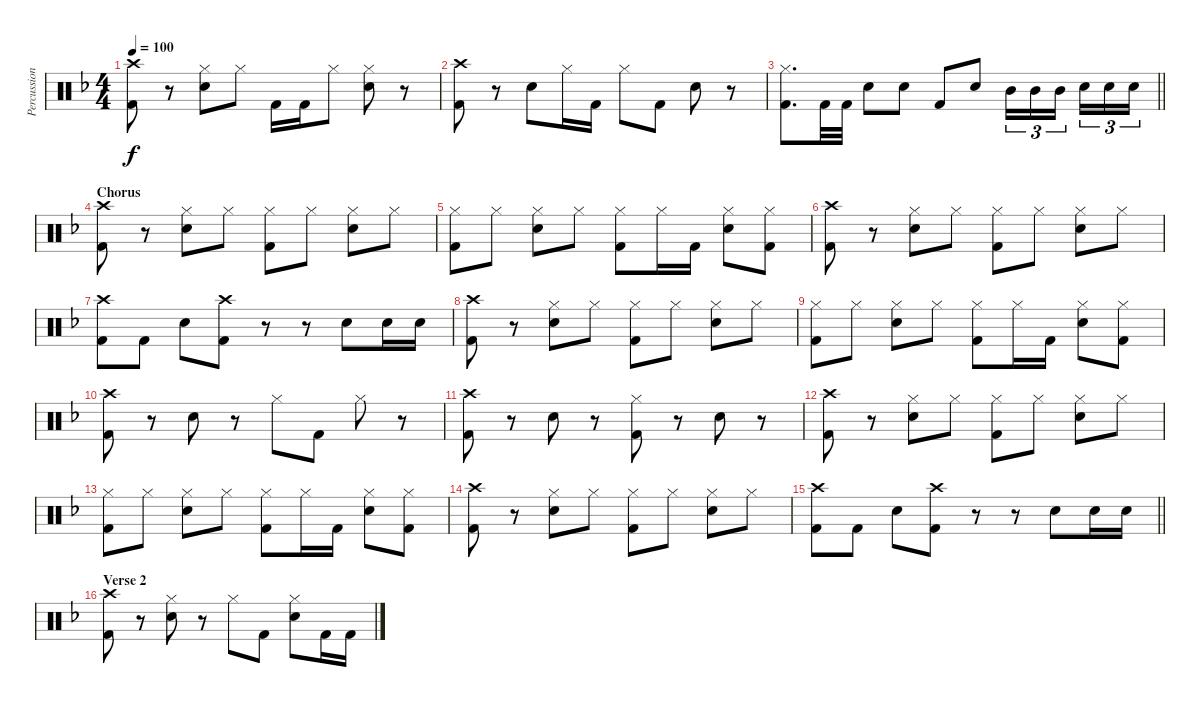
\track ("Percussion" "Percussion") {instrument percussion}
\staff {score}
\articulation defaults
\ts (4 4)
\tempo 100
\clef neutral
\ks dminor
("Crash high (hit)" "Kick (hit) 2").8{dy f} r.8 ("Hi-Hat (closed)" "Snare (hit) 2").8 "Hi-Hat (closed)".8 "Kick (hit) 2".16 "Kick (hit) 2".16 "Hi-Hat (closed)".8 ("Hi-Hat (closed)" "Snare (hit) 2").8 r.8 |
("Crash high (hit)" "Kick (hit) 2").8 r.8 "Snare (hit) 2".8 "Hi-Hat (closed)".16 "Kick (hit) 2".16 "Hi-Hat (closed)".8 "Kick (hit) 2".8 "Snare (hit) 2".8 r.8 |
\barLineRight lightlight
("Hi-Hat (closed)" "Kick (hit) 2").8{d} "Kick (hit) 2".32 "Kick (hit) 2".32 "Snare (hit) 2".8 "Snare (hit) 2".8 "Kick (hit) 2".8 "Snare (hit) 2".8 "Mid Tom (hit)".16{tu (3 2)} "Mid Tom (hit)".16{tu (3 2)} "Mid Tom (hit)".16{tu (3 2) beam splitsecondary} "Snare (hit) 2".16{tu (3 2)} "Snare (hit) 2".16{tu (3 2)} "Snare (hit) 2".16{tu (3 2)} |
\section ("" "Chorus")
("Crash high (hit)" "Kick (hit) 2").8 r.8 ("Hi-Hat (closed)" "Snare (hit) 2").8 "Hi-Hat (closed)".8 ("Hi-Hat (closed)" "Kick (hit) 2").8 "Hi-Hat (closed)".8 ("Hi-Hat (closed)" "Snare (hit) 2").8 "Hi-Hat (closed)".8 |
("Hi-Hat (closed)" "Kick (hit) 2").8 "Hi-Hat (closed)".8 ("Hi-Hat (closed)" "Snare (hit) 2").8 "Hi-Hat (closed)".8 ("Hi-Hat (closed)" "Kick (hit) 2").8 "Hi-Hat (closed)".16 "Kick (hit) 2".16 ("Hi-Hat (closed)" "Snare (hit) 2").8 ("Hi-Hat (closed)" "Kick (hit) 2").8 |
("Crash high (hit)" "Kick (hit) 2").8 r.8 ("Hi-Hat (closed)" "Snare (hit) 2").8 "Hi-Hat (closed)".8 ("Hi-Hat (closed)" "Kick (hit) 2").8 "Hi-Hat (closed)".8 ("Hi-Hat (closed)" "Snare (hit) 2").8 "Hi-Hat (closed)".8 |
("Crash high (hit)" "Kick (hit) 2").8 "Kick (hit) 2".8 "Snare (hit) 2".8 ("Crash high (hit)" "Kick (hit) 2").8 r.8 r.8 "Snare (hit) 2".8 "Snare (hit) 2".16 "Snare (hit) 2".16 |
("Crash high (hit)" "Kick (hit) 2").8 r.8 ("Hi-Hat (closed)" "Snare (hit) 2").8 "Hi-Hat (closed)".8 ("Hi-Hat (closed)" "Kick (hit) 2").8 "Hi-Hat (closed)".8 ("Hi-Hat (closed)" "Snare (hit) 2").8 "Hi-Hat (closed)".8 |
("Hi-Hat (closed)" "Kick (hit) 2").8 "Hi-Hat (closed)".8 ("Hi-Hat (closed)" "Snare (hit) 2").8 "Hi-Hat (closed)".8 ("Hi-Hat (closed)" "Kick (hit) 2").8 "Hi-Hat (closed)".16 "Kick (hit) 2".16 ("Hi-Hat (closed)" "Snare (hit) 2").8 ("Hi-Hat (closed)" "Kick (hit) 2").8 |
("Crash high (hit)" "Kick (hit) 2").8 r.8 "Snare (hit) 2".8 r.8 "Hi-Hat (closed)".8 "Kick (hit) 2".8 "Hi-Hat (closed)".8 r.8 |
("Crash high (hit)" "Kick (hit) 2").8 r.8 "Snare (hit) 2".8 r.8 ("Hi-Hat (closed)" "Kick (hit) 2").8 r.8 "Snare (hit) 2".8 r.8 |
("Crash high (hit)" "Kick (hit) 2").8 r.8 ("Hi-Hat (closed)" "Snare (hit) 2").8 "Hi-Hat (closed)".8 ("Hi-Hat (closed)" "Kick (hit) 2").8 "Hi-Hat (closed)".8 ("Hi-Hat (closed)" "Snare (hit) 2").8 "Hi-Hat (closed)".8 |
("Hi-Hat (closed)" "Kick (hit) 2").8 "Hi-Hat (closed)".8 ("Hi-Hat (closed)" "Snare (hit) 2").8 "Hi-Hat (closed)".8 ("Hi-Hat (closed)" "Kick (hit) 2").8 "Hi-Hat (closed)".16 "Kick (hit) 2".16 ("Hi-Hat (closed)" "Snare (hit) 2").8 ("Hi-Hat (closed)" "Kick (hit) 2").8 |
("Crash high (hit)" "Kick (hit) 2").8 r.8 ("Hi-Hat (closed)" "Snare (hit) 2").8 "Hi-Hat (closed)".8 ("Hi-Hat (closed)" "Kick (hit) 2").8 "Hi-Hat (closed)".8 ("Hi-Hat (closed)" "Snare (hit) 2").8 "Hi-Hat (closed)".8 |
\barLineRight lightlight
("Crash high (hit)" "Kick (hit) 2").8 "Kick (hit) 2".8 "Snare (hit) 2".8 ("Crash high (hit)" "Kick (hit) 2").8 r.8 r.8 "Snare (hit) 2".8 "Snare (hit) 2".16 "Snare (hit) 2".16 |
\section ("" "Verse 2")
("Crash high (hit)" "Kick (hit) 2").8 r.8 ("Hi-Hat (closed)" "Snare (hit) 2").8 r.8 "Hi-Hat (closed)".8 "Kick (hit) 2".8 ("Hi-Hat (closed)" "Snare (hit) 2").8 "Kick (hit) 2".16 "Kick (hit) 2".16
